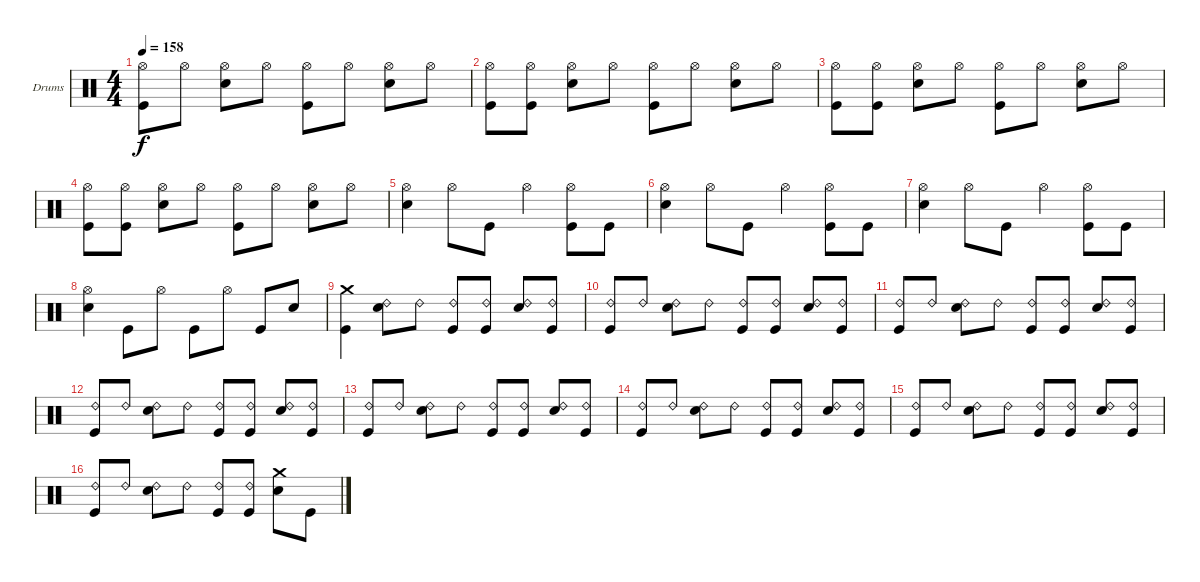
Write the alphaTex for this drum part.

\bracketExtendMode groupsimilarinstruments
\firstSystemTrackNameOrientation horizontal
\otherSystemsTrackNameOrientation horizontal
\track ("Drumkit" "Drums") {instrument percussion}
\staff {score}
\articulation defaults
\ts (4 4)
\tempo 158
\clef neutral
\ks c
("Hi-Hat (open)" "Kick (hit)").8{dy f} "Hi-Hat (open)".8 ("Hi-Hat (open)" "Snare (hit) 2").8 "Hi-Hat (open)".8 ("Hi-Hat (open)" "Kick (hit)").8 "Hi-Hat (open)".8 ("Hi-Hat (open)" "Snare (hit) 2").8 "Hi-Hat (open)".8 |
("Hi-Hat (open)" "Kick (hit)").8 ("Hi-Hat (open)" "Kick (hit)").8 ("Hi-Hat (open)" "Snare (hit) 2").8 "Hi-Hat (open)".8 ("Hi-Hat (open)" "Kick (hit)").8 "Hi-Hat (open)".8 ("Hi-Hat (open)" "Snare (hit) 2").8 "Hi-Hat (open)".8 |
("Hi-Hat (open)" "Kick (hit)").8 ("Hi-Hat (open)" "Kick (hit)").8 ("Hi-Hat (open)" "Snare (hit) 2").8 "Hi-Hat (open)".8 ("Hi-Hat (open)" "Kick (hit)").8 "Hi-Hat (open)".8 ("Hi-Hat (open)" "Snare (hit) 2").8 "Hi-Hat (open)".8 |
("Hi-Hat (open)" "Kick (hit)").8 ("Hi-Hat (open)" "Kick (hit)").8 ("Hi-Hat (open)" "Snare (hit) 2").8 "Hi-Hat (open)".8 ("Hi-Hat (open)" "Kick (hit)").8 "Hi-Hat (open)".8 ("Hi-Hat (open)" "Snare (hit) 2").8 "Hi-Hat (open)".8 |
("Hi-Hat (open)" "Snare (hit) 2").4 "Hi-Hat (open)".8 "Kick (hit)".8 "Hi-Hat (open)".4 ("Hi-Hat (open)" "Kick (hit)").8 "Kick (hit)".8 |
("Hi-Hat (open)" "Snare (hit) 2").4 "Hi-Hat (open)".8 "Kick (hit)".8 "Hi-Hat (open)".4 ("Hi-Hat (open)" "Kick (hit)").8 "Kick (hit)".8 |
("Hi-Hat (open)" "Snare (hit) 2").4 "Hi-Hat (open)".8 "Kick (hit)".8 "Hi-Hat (open)".4 ("Hi-Hat (open)" "Kick (hit)").8 "Kick (hit)".8 |
("Hi-Hat (open)" "Snare (hit) 2").4 "Kick (hit)".8 "Hi-Hat (open)".8 "Kick (hit)".8 "Hi-Hat (open)".8 "Kick (hit)".8 "Snare (hit) 2".8 |
("Crash medium (hit)" "Kick (hit)").4 ("Ride (bell) 2" "Snare (hit) 2").8 "Ride (bell) 2".8 ("Ride (bell) 2" "Kick (hit)").8 ("Ride (bell) 2" "Kick (hit)").8 ("Ride (bell) 2" "Snare (hit) 2").8 ("Ride (bell) 2" "Kick (hit)").8 |
("Ride (bell) 2" "Kick (hit)").8 "Ride (bell) 2".8 ("Ride (bell) 2" "Snare (hit) 2").8 "Ride (bell) 2".8 ("Ride (bell) 2" "Kick (hit)").8 ("Ride (bell) 2" "Kick (hit)").8 ("Ride (bell) 2" "Snare (hit) 2").8 ("Ride (bell) 2" "Kick (hit)").8 |
("Ride (bell) 2" "Kick (hit)").8 "Ride (bell) 2".8 ("Ride (bell) 2" "Snare (hit) 2").8 "Ride (bell) 2".8 ("Ride (bell) 2" "Kick (hit)").8 ("Ride (bell) 2" "Kick (hit)").8 ("Ride (bell) 2" "Snare (hit) 2").8 ("Ride (bell) 2" "Kick (hit)").8 |
("Ride (bell) 2" "Kick (hit)").8 "Ride (bell) 2".8 ("Ride (bell) 2" "Snare (hit) 2").8 "Ride (bell) 2".8 ("Ride (bell) 2" "Kick (hit)").8 ("Ride (bell) 2" "Kick (hit)").8 ("Ride (bell) 2" "Snare (hit) 2").8 ("Ride (bell) 2" "Kick (hit)").8 |
("Ride (bell) 2" "Kick (hit)").8 "Ride (bell) 2".8 ("Ride (bell) 2" "Snare (hit) 2").8 "Ride (bell) 2".8 ("Ride (bell) 2" "Kick (hit)").8 ("Ride (bell) 2" "Kick (hit)").8 ("Ride (bell) 2" "Snare (hit) 2").8 ("Ride (bell) 2" "Kick (hit)").8 |
("Ride (bell) 2" "Kick (hit)").8 "Ride (bell) 2".8 ("Ride (bell) 2" "Snare (hit) 2").8 "Ride (bell) 2".8 ("Ride (bell) 2" "Kick (hit)").8 ("Ride (bell) 2" "Kick (hit)").8 ("Ride (bell) 2" "Snare (hit) 2").8 ("Ride (bell) 2" "Kick (hit)").8 |
("Ride (bell) 2" "Kick (hit)").8 "Ride (bell) 2".8 ("Ride (bell) 2" "Snare (hit) 2").8 "Ride (bell) 2".8 ("Ride (bell) 2" "Kick (hit)").8 ("Ride (bell) 2" "Kick (hit)").8 ("Ride (bell) 2" "Snare (hit) 2").8 ("Ride (bell) 2" "Kick (hit)").8 |
("Ride (bell) 2" "Kick (hit)").8 "Ride (bell) 2".8 ("Ride (bell) 2" "Snare (hit) 2").8 "Ride (bell) 2".8 ("Ride (bell) 2" "Kick (hit)").8 ("Ride (bell) 2" "Kick (hit)").8 ("Crash medium (hit)" "Snare (hit) 2").8 "Kick (hit)".8
